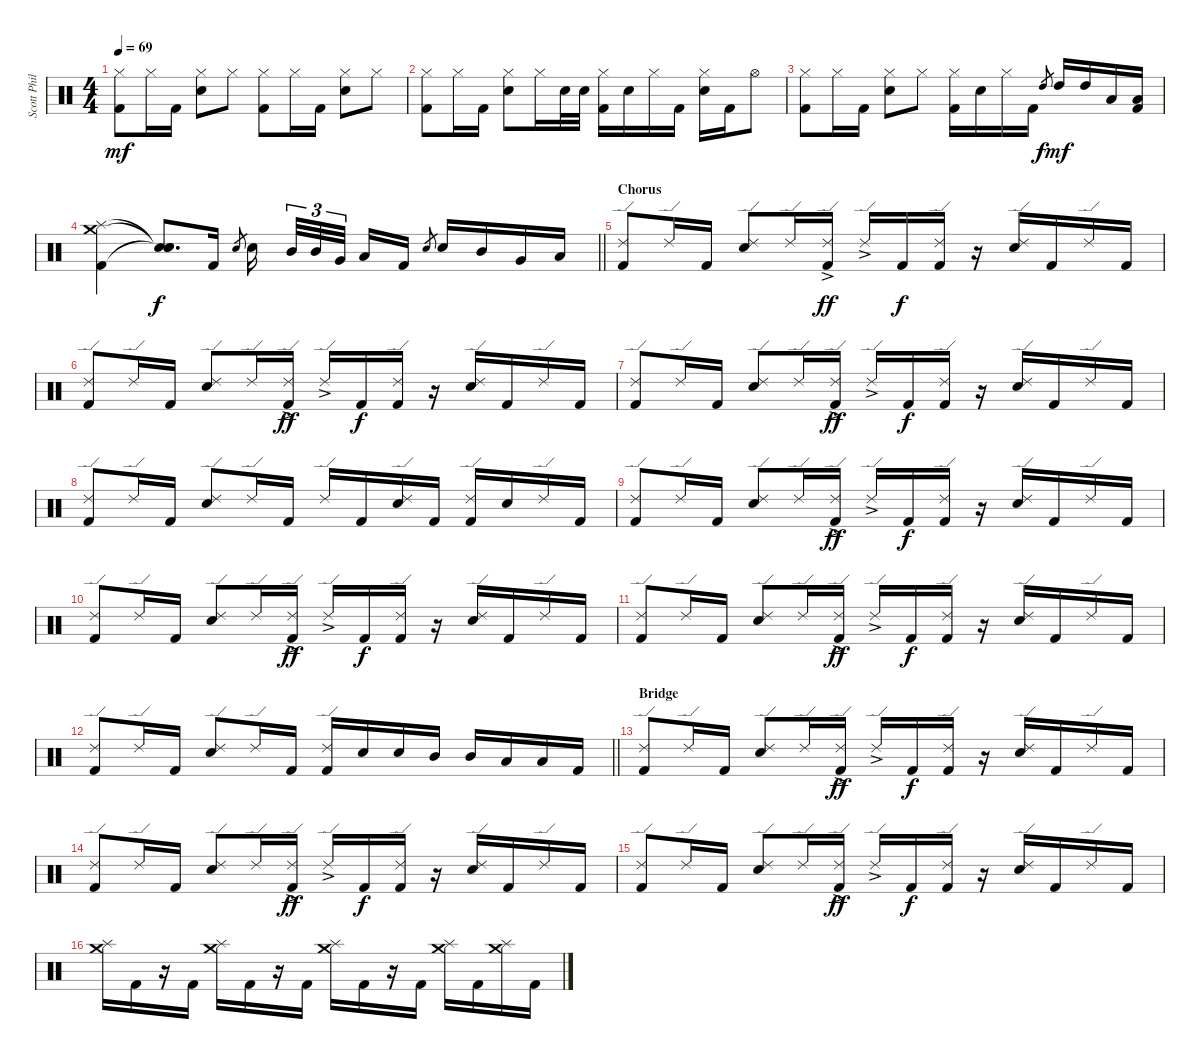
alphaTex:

\track ("Scott Phillips" "Scott Phil") {instrument percussion}
\staff {score}
\articulation defaults
\ts (4 4)
\tempo 69
\clef neutral
\ks c
("Hi-Hat (closed)" "Kick (hit) 2").8{dy mf} "Hi-Hat (closed)".16 "Kick (hit) 2".16 ("Hi-Hat (closed)" "Electric Snare (hit)").8 "Hi-Hat (closed)".8 ("Hi-Hat (closed)" "Kick (hit) 2").8 "Hi-Hat (closed)".16 "Kick (hit) 2".16 ("Hi-Hat (closed)" "Electric Snare (hit)").8 "Hi-Hat (closed)".8 |
("Hi-Hat (closed)" "Kick (hit) 2").8 "Hi-Hat (closed)".16 "Kick (hit) 2".16 ("Hi-Hat (closed)" "Electric Snare (hit)").8 "Hi-Hat (closed)".16 "Electric Snare (hit)".32 "Electric Snare (hit)".32 ("Hi-Hat (closed)" "Kick (hit) 2").16 "Electric Snare (hit)".16 "Hi-Hat (closed)".16 "Kick (hit) 2".16 ("Hi-Hat (closed)" "Electric Snare (hit)").16 "Kick (hit) 2".16 "Hi-Hat (open)".8 |
("Hi-Hat (closed)" "Kick (hit) 2").8 "Hi-Hat (closed)".16 "Kick (hit) 2".16 ("Hi-Hat (closed)" "Electric Snare (hit)").8 "Hi-Hat (closed)".8 ("Hi-Hat (closed)" "Kick (hit) 2").16 "Electric Snare (hit)".16 "Hi-Hat (closed)".16 "Kick (hit) 2".16 "High Tom (hit)".8{gr dy f} "High Tom (hit)".16{dy mf} "High Tom (hit)".16 "Low Tom (hit)".16 ("Low Floor Tom (hit)" "Kick (hit) 2").16 |
\barLineRight lightlight
("Crash medium (hit)" "Splash (hit)" "Kick (hit) 2").4 ("Snare (hit)"{t} "Snare (hit)"{t} "Snare (hit)"{t}).8{d dy f} "Kick (hit) 2".16 "Electric Snare (hit)".8{gr} "Electric Snare (hit)".16{beam splitsecondary} "Mid Tom (hit)".32{tu (3 2)} "Mid Tom (hit)".32{tu (3 2)} "Very Low Tom (hit)".32{tu (3 2) beam splitsecondary} "Low Floor Tom (hit)".16 "Kick (hit) 2".16 "Electric Snare (hit)".8{gr} "Electric Snare (hit)".16 "Mid Tom (hit)".16 "Very Low Tom (hit)".16 "Low Floor Tom (hit)".16 |
\section ("" "Chorus")
("Ride (edge) 2" "Kick (hit) 2").8 "Ride (edge) 2".16 "Kick (hit) 2".16 ("Ride (edge) 2" "Electric Snare (hit)").8 "Ride (edge) 2".16 ("Ride (edge) 2"{ac} "Kick (hit) 2").16{dy ff} "Ride (edge) 2"{ac}.16 "Kick (hit) 2".16{dy f} ("Ride (edge) 2" "Kick (hit) 2").16 r.16 ("Ride (edge) 2" "Electric Snare (hit)").16 "Kick (hit) 2".16 "Ride (edge) 2".16 "Kick (hit) 2".16 |
("Ride (edge) 2" "Kick (hit) 2").8 "Ride (edge) 2".16 "Kick (hit) 2".16 ("Ride (edge) 2" "Electric Snare (hit)").8 "Ride (edge) 2".16 ("Ride (edge) 2"{ac} "Kick (hit) 2").16{dy ff} "Ride (edge) 2"{ac}.16 "Kick (hit) 2".16{dy f} ("Ride (edge) 2" "Kick (hit) 2").16 r.16 ("Ride (edge) 2" "Electric Snare (hit)").16 "Kick (hit) 2".16 "Ride (edge) 2".16 "Kick (hit) 2".16 |
("Ride (edge) 2" "Kick (hit) 2").8 "Ride (edge) 2".16 "Kick (hit) 2".16 ("Ride (edge) 2" "Electric Snare (hit)").8 "Ride (edge) 2".16 ("Ride (edge) 2"{ac} "Kick (hit) 2").16{dy ff} "Ride (edge) 2"{ac}.16 "Kick (hit) 2".16{dy f} ("Ride (edge) 2" "Kick (hit) 2").16 r.16 ("Ride (edge) 2" "Electric Snare (hit)").16 "Kick (hit) 2".16 "Ride (edge) 2".16 "Kick (hit) 2".16 |
("Ride (edge) 2" "Kick (hit) 2").8 "Ride (edge) 2".16 "Kick (hit) 2".16 ("Ride (edge) 2" "Electric Snare (hit)").8 "Ride (edge) 2".16 "Kick (hit) 2".16 "Ride (edge) 2".16 "Kick (hit) 2".16 ("Ride (edge) 2" "Electric Snare (hit)").16 "Kick (hit) 2".16 ("Ride (edge) 2" "Kick (hit) 2").16 "Electric Snare (hit)".16 "Ride (edge) 2".16 "Kick (hit) 2".16 |
("Ride (edge) 2" "Kick (hit) 2").8 "Ride (edge) 2".16 "Kick (hit) 2".16 ("Ride (edge) 2" "Electric Snare (hit)").8 "Ride (edge) 2".16 ("Ride (edge) 2"{ac} "Kick (hit) 2").16{dy ff} "Ride (edge) 2"{ac}.16 "Kick (hit) 2".16{dy f} ("Ride (edge) 2" "Kick (hit) 2").16 r.16 ("Ride (edge) 2" "Electric Snare (hit)").16 "Kick (hit) 2".16 "Ride (edge) 2".16 "Kick (hit) 2".16 |
("Ride (edge) 2" "Kick (hit) 2").8 "Ride (edge) 2".16 "Kick (hit) 2".16 ("Ride (edge) 2" "Electric Snare (hit)").8 "Ride (edge) 2".16 ("Ride (edge) 2"{ac} "Kick (hit) 2").16{dy ff} "Ride (edge) 2"{ac}.16 "Kick (hit) 2".16{dy f} ("Ride (edge) 2" "Kick (hit) 2").16 r.16 ("Ride (edge) 2" "Electric Snare (hit)").16 "Kick (hit) 2".16 "Ride (edge) 2".16 "Kick (hit) 2".16 |
("Ride (edge) 2" "Kick (hit) 2").8 "Ride (edge) 2".16 "Kick (hit) 2".16 ("Ride (edge) 2" "Electric Snare (hit)").8 "Ride (edge) 2".16 ("Ride (edge) 2"{ac} "Kick (hit) 2").16{dy ff} "Ride (edge) 2"{ac}.16 "Kick (hit) 2".16{dy f} ("Ride (edge) 2" "Kick (hit) 2").16 r.16 ("Ride (edge) 2" "Electric Snare (hit)").16 "Kick (hit) 2".16 "Ride (edge) 2".16 "Kick (hit) 2".16 |
\barLineRight lightlight
("Ride (edge) 2" "Kick (hit) 2").8 "Ride (edge) 2".16 "Kick (hit) 2".16 ("Ride (edge) 2" "Electric Snare (hit)").8 "Ride (edge) 2".16 "Kick (hit) 2".16 ("Ride (edge) 2" "Kick (hit) 2").16 "Electric Snare (hit)".16 "Electric Snare (hit)".16 "Mid Tom (hit)".16 "Mid Tom (hit)".16 "Low Floor Tom (hit)".16 "Low Floor Tom (hit)".16 "Kick (hit) 2".16 |
\section ("" "Bridge")
("Ride (edge) 2" "Kick (hit) 2").8 "Ride (edge) 2".16 "Kick (hit) 2".16 ("Ride (edge) 2" "Electric Snare (hit)").8 "Ride (edge) 2".16 ("Ride (edge) 2"{ac} "Kick (hit) 2").16{dy ff} "Ride (edge) 2"{ac}.16 "Kick (hit) 2".16{dy f} ("Ride (edge) 2" "Kick (hit) 2").16 r.16 ("Ride (edge) 2" "Electric Snare (hit)").16 "Kick (hit) 2".16 "Ride (edge) 2".16 "Kick (hit) 2".16 |
("Ride (edge) 2" "Kick (hit) 2").8 "Ride (edge) 2".16 "Kick (hit) 2".16 ("Ride (edge) 2" "Electric Snare (hit)").8 "Ride (edge) 2".16 ("Ride (edge) 2"{ac} "Kick (hit) 2").16{dy ff} "Ride (edge) 2"{ac}.16 "Kick (hit) 2".16{dy f} ("Ride (edge) 2" "Kick (hit) 2").16 r.16 ("Ride (edge) 2" "Electric Snare (hit)").16 "Kick (hit) 2".16 "Ride (edge) 2".16 "Kick (hit) 2".16 |
("Ride (edge) 2" "Kick (hit) 2").8 "Ride (edge) 2".16 "Kick (hit) 2".16 ("Ride (edge) 2" "Electric Snare (hit)").8 "Ride (edge) 2".16 ("Ride (edge) 2"{ac} "Kick (hit) 2").16{dy ff} "Ride (edge) 2"{ac}.16 "Kick (hit) 2".16{dy f} ("Ride (edge) 2" "Kick (hit) 2").16 r.16 ("Ride (edge) 2" "Electric Snare (hit)").16 "Kick (hit) 2".16 "Ride (edge) 2".16 "Kick (hit) 2".16 |
("Crash medium (hit)" "Splash (hit)").16 "Kick (hit) 2".16 r.16 "Kick (hit) 2".16 ("Crash medium (hit)" "Splash (hit)").16 "Kick (hit) 2".16 r.16 "Kick (hit) 2".16 ("Crash medium (hit)" "Splash (hit)").16 "Kick (hit) 2".16 r.16 "Kick (hit) 2".16 ("Crash medium (hit)" "Splash (hit)").16 "Kick (hit) 2".16 ("Crash medium (hit)" "Splash (hit)").16 "Kick (hit) 2".16
